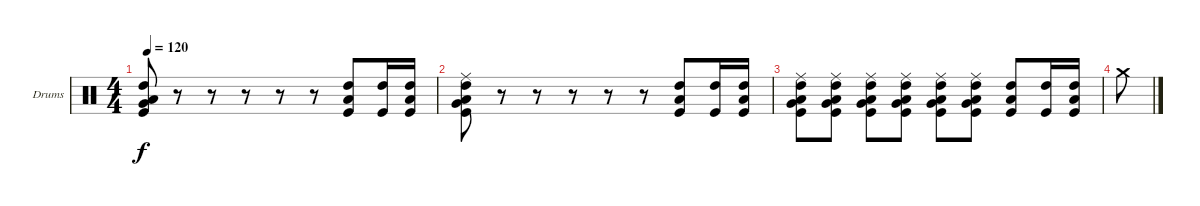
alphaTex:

\defaultSystemsLayout 4
\bracketExtendMode groupsimilarinstruments
\firstSystemTrackNameOrientation horizontal
\otherSystemsTrackNameOrientation horizontal
\track ("Drumkit" "Drums") {instrument percussion}
\staff {score}
\articulation defaults
\ts (4 4)
\tempo 120
\clef neutral
\scale
0.333333
\ks c
("High Tom (hit)" "Low Tom (hit)" "Very Low Tom (hit)" "Kick (hit)").8{dy f} r.8 r.8 r.8 r.8 r.8 ("High Tom (hit)" "Low Tom (hit)" "Kick (hit)").8 ("High Tom (hit)" "Kick (hit)").16 ("High Tom (hit)" "Low Tom (hit)" "Kick (hit)").16 |
\scale
0.333333 ("High Tom (hit)" "Low Tom (hit)" "Very Low Tom (hit)" "Kick (hit)" "Ride (middle)").8 r.8 r.8 r.8 r.8 r.8 ("High Tom (hit)" "Low Tom (hit)" "Kick (hit)").8 ("High Tom (hit)" "Kick (hit)").16 ("High Tom (hit)" "Low Tom (hit)" "Kick (hit)").16 |
\scale
0.333333 ("High Tom (hit)" "Low Tom (hit)" "Very Low Tom (hit)" "Kick (hit)" "Ride (middle)").8 ("High Tom (hit)" "Low Tom (hit)" "Very Low Tom (hit)" "Kick (hit)" "Ride (middle)").8 ("High Tom (hit)" "Low Tom (hit)" "Very Low Tom (hit)" "Kick (hit)" "Ride (middle)").8 ("High Tom (hit)" "Low Tom (hit)" "Very Low Tom (hit)" "Kick (hit)" "Ride (middle)").8 ("High Tom (hit)" "Low Tom (hit)" "Very Low Tom (hit)" "Kick (hit)" "Ride (middle)").8 ("High Tom (hit)" "Low Tom (hit)" "Very Low Tom (hit)" "Kick (hit)" "Ride (middle)").8 ("High Tom (hit)" "Low Tom (hit)" "Kick (hit)").8 ("High Tom (hit)" "Kick (hit)").16 ("High Tom (hit)" "Low Tom (hit)" "Kick (hit)").16 |
\scale
0.333333 "Crash medium (hit)".8 |
\scale
0.333333 |
\scale
0.333333 |
\scale
0.333333
